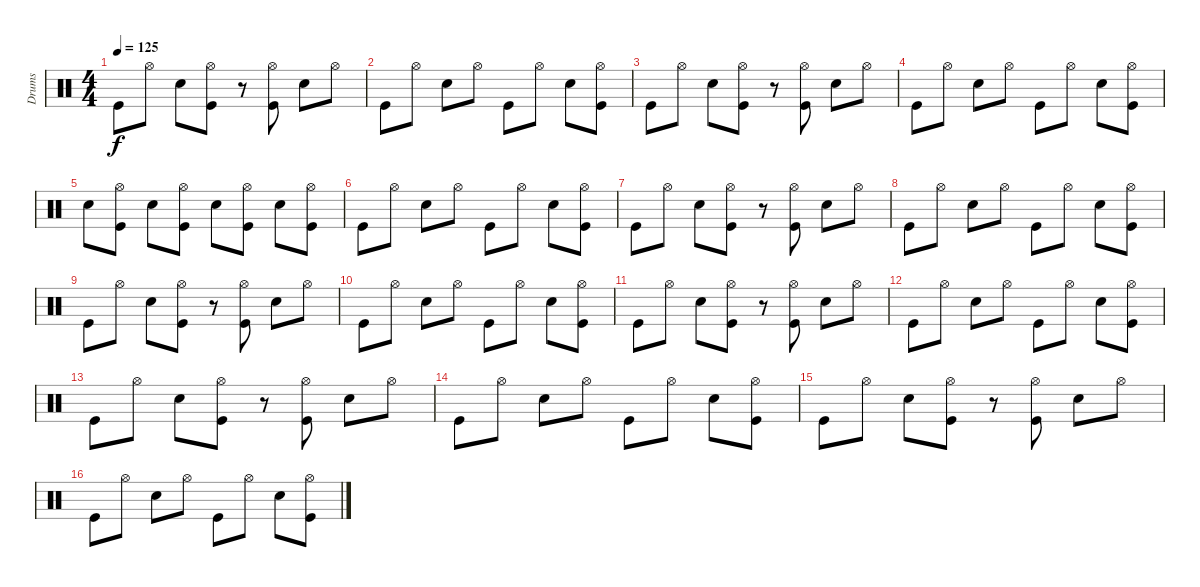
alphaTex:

\track ("Drums" "Drums") {instrument percussion}
\staff {score}
\articulation defaults
\ts (4 4)
\tempo 125
\clef neutral
\ks c "Kick (hit)".8{dy f} "Hi-Hat (open)".8 "Electric Snare (hit)".8
("Hi-Hat (open)" "Kick (hit)").8 r.8 ("Hi-Hat (open)" "Kick (hit)").8 "Electric Snare (hit)".8 "Hi-Hat (open)".8 |
"Kick (hit)".8 "Hi-Hat (open)".8 "Electric Snare (hit)".8 "Hi-Hat (open)".8 "Kick (hit)".8 "Hi-Hat (open)".8 "Electric Snare (hit)".8 ("Hi-Hat (open)" "Kick (hit)").8 |
"Kick (hit)".8 "Hi-Hat (open)".8 "Electric Snare (hit)".8 ("Hi-Hat (open)" "Kick (hit)").8 r.8 ("Hi-Hat (open)" "Kick (hit)").8 "Electric Snare (hit)".8 "Hi-Hat (open)".8 |
"Kick (hit)".8 "Hi-Hat (open)".8 "Electric Snare (hit)".8 "Hi-Hat (open)".8 "Kick (hit)".8 "Hi-Hat (open)".8 "Electric Snare (hit)".8 ("Hi-Hat (open)" "Kick (hit)").8 |
"Electric Snare (hit)".8 ("Hi-Hat (open)" "Kick (hit)").8 "Electric Snare (hit)".8 ("Hi-Hat (open)" "Kick (hit)").8 "Electric Snare (hit)".8 ("Hi-Hat (open)" "Kick (hit)").8 "Electric Snare (hit)".8 ("Hi-Hat (open)" "Kick (hit)").8 |
"Kick (hit)".8 "Hi-Hat (open)".8 "Electric Snare (hit)".8 "Hi-Hat (open)".8 "Kick (hit)".8 "Hi-Hat (open)".8 "Electric Snare (hit)".8 ("Hi-Hat (open)" "Kick (hit)").8 |
"Kick (hit)".8 "Hi-Hat (open)".8 "Electric Snare (hit)".8 ("Hi-Hat (open)" "Kick (hit)").8 r.8 ("Hi-Hat (open)" "Kick (hit)").8 "Electric Snare (hit)".8 "Hi-Hat (open)".8 |
"Kick (hit)".8 "Hi-Hat (open)".8 "Electric Snare (hit)".8 "Hi-Hat (open)".8 "Kick (hit)".8 "Hi-Hat (open)".8 "Electric Snare (hit)".8 ("Hi-Hat (open)" "Kick (hit)").8 |
"Kick (hit)".8 "Hi-Hat (open)".8 "Electric Snare (hit)".8 ("Hi-Hat (open)" "Kick (hit)").8 r.8 ("Hi-Hat (open)" "Kick (hit)").8 "Electric Snare (hit)".8 "Hi-Hat (open)".8 |
"Kick (hit)".8 "Hi-Hat (open)".8 "Electric Snare (hit)".8 "Hi-Hat (open)".8 "Kick (hit)".8 "Hi-Hat (open)".8 "Electric Snare (hit)".8 ("Hi-Hat (open)" "Kick (hit)").8 |
"Kick (hit)".8 "Hi-Hat (open)".8 "Electric Snare (hit)".8 ("Hi-Hat (open)" "Kick (hit)").8 r.8 ("Hi-Hat (open)" "Kick (hit)").8 "Electric Snare (hit)".8 "Hi-Hat (open)".8 |
"Kick (hit)".8 "Hi-Hat (open)".8 "Electric Snare (hit)".8 "Hi-Hat (open)".8 "Kick (hit)".8 "Hi-Hat (open)".8 "Electric Snare (hit)".8 ("Hi-Hat (open)" "Kick (hit)").8 |
"Kick (hit)".8 "Hi-Hat (open)".8 "Electric Snare (hit)".8 ("Hi-Hat (open)" "Kick (hit)").8 r.8 ("Hi-Hat (open)" "Kick (hit)").8 "Electric Snare (hit)".8 "Hi-Hat (open)".8 |
"Kick (hit)".8 "Hi-Hat (open)".8 "Electric Snare (hit)".8 "Hi-Hat (open)".8 "Kick (hit)".8 "Hi-Hat (open)".8 "Electric Snare (hit)".8 ("Hi-Hat (open)" "Kick (hit)").8 |
"Kick (hit)".8 "Hi-Hat (open)".8 "Electric Snare (hit)".8 ("Hi-Hat (open)" "Kick (hit)").8 r.8 ("Hi-Hat (open)" "Kick (hit)").8 "Electric Snare (hit)".8 "Hi-Hat (open)".8 |
"Kick (hit)".8 "Hi-Hat (open)".8 "Electric Snare (hit)".8 "Hi-Hat (open)".8 "Kick (hit)".8 "Hi-Hat (open)".8 "Electric Snare (hit)".8 ("Hi-Hat (open)" "Kick (hit)").8
